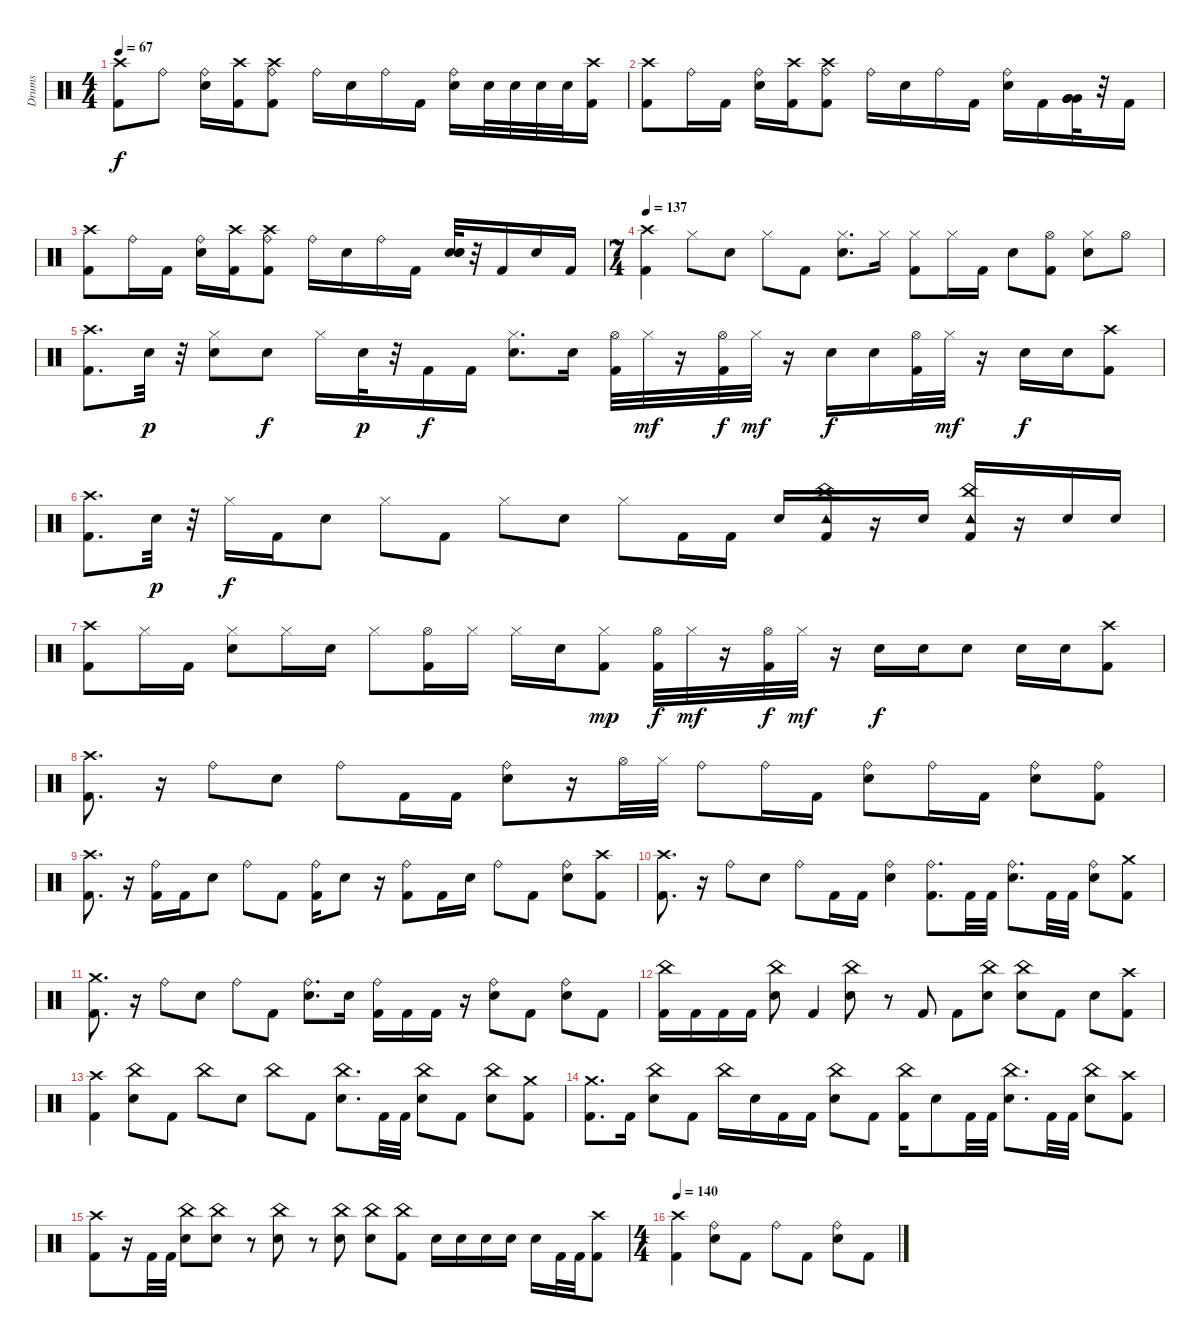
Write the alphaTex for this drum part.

\track ("Drums" "Drums") {instrument percussion}
\staff {score}
\articulation defaults
\ts (4 4)
\tempo 67
\clef neutral
\ks c
("Kick (hit) 2" "Crash high (hit)").8{dy f} "Ride (bell)".8 ("Ride (bell)" "Electric Snare (hit)").16 ("Kick (hit) 2" "Crash high (hit)").16 ("Ride (bell)" "Crash high (hit)" "Kick (hit) 2").8 "Ride (bell)".16 "Electric Snare (hit)".16 "Ride (bell)".16 "Kick (hit) 2".16 ("Ride (bell)" "Electric Snare (hit)").16 "Electric Snare (hit)".32 "Electric Snare (hit)".32 "Electric Snare (hit)".32 "Electric Snare (hit)".32 ("Crash high (hit)" "Kick (hit) 2").16 |
("Crash high (hit)" "Kick (hit) 2").8 "Ride (bell)".16 "Kick (hit) 2".16 ("Ride (bell)" "Electric Snare (hit)").16 ("Kick (hit) 2" "Crash high (hit)").16 ("Ride (bell)" "Crash high (hit)" "Kick (hit) 2").8 "Ride (bell)".16 "Electric Snare (hit)".16 "Ride (bell)".16 "Kick (hit) 2".16 ("Electric Snare (hit)" "Ride (bell)").16 "Kick (hit) 2".16 ("Very Low Tom (hit)" "Very Low Tom (hit)" "Very Low Tom (hit)").32 r.32 "Kick (hit) 2".16 |
("Kick (hit) 2" "Crash high (hit)").8 "Ride (bell)".16 "Kick (hit) 2".16 ("Ride (bell)" "Electric Snare (hit)").16 ("Kick (hit) 2" "Crash high (hit)").16 ("Ride (bell)" "Crash high (hit)" "Kick (hit) 2").8 "Ride (bell)".16 "Electric Snare (hit)".16 "Ride (bell)".16 "Kick (hit) 2".16 ("Electric Snare (hit)" "Electric Snare (hit)" "Electric Snare (hit)").32 r.32 "Kick (hit) 2".16 "Electric Snare (hit)".16 "Kick (hit) 2".16 |
\ts (7 4)
\tempo 137
("Crash high (hit)" "Kick (hit) 2").4 "Hi-Hat (closed)".8 "Electric Snare (hit)".8 "Hi-Hat (closed)".8 "Kick (hit) 2".8 ("Electric Snare (hit)" "Hi-Hat (closed)").8{d} "Hi-Hat (closed)".16 ("Kick (hit) 2" "Hi-Hat (closed)").8 "Hi-Hat (closed)".16 "Kick (hit) 2".16 "Electric Snare (hit)".8 ("Hi-Hat (open)" "Kick (hit) 2").8 ("Hi-Hat (closed)" "Electric Snare (hit)").8 "Hi-Hat (open)".8 |
("Kick (hit) 2" "Crash high (hit)").8{d} "Electric Snare (hit)".32{dy p} r.32 ("Hi-Hat (closed)" "Electric Snare (hit)").8 "Electric Snare (hit)".8{dy f} "Hi-Hat (closed)".16 "Electric Snare (hit)".32{dy p} r.32 "Kick (hit) 2".16{dy f} "Kick (hit) 2".16 ("Electric Snare (hit)" "Hi-Hat (closed)").8{d} "Electric Snare (hit)".16 ("Kick (hit) 2" "Hi-Hat (open)").32 "Hi-Hat (closed)".32{dy mf} r.16 ("Kick (hit) 2" "Hi-Hat (open)").32{dy f} "Hi-Hat (closed)".32{dy mf} r.16 "Electric Snare (hit)".16{dy f} "Electric Snare (hit)".16 ("Hi-Hat (open)" "Kick (hit) 2").32 "Hi-Hat (closed)".32{dy mf} r.16 "Electric Snare (hit)".16{dy f} "Electric Snare (hit)".16 ("Crash high (hit)" "Kick (hit) 2").8 |
("Kick (hit) 2" "Crash high (hit)").8{d} "Electric Snare (hit)".32{dy p} r.32 "Hi-Hat (closed)".16{dy f} "Kick (hit) 2".16 "Electric Snare (hit)".8 "Hi-Hat (closed)".8 "Kick (hit) 2".8 "Hi-Hat (closed)".8 "Electric Snare (hit)".8 "Hi-Hat (closed)".8 "Kick (hit) 2".16 "Kick (hit) 2".16 "Electric Snare (hit)".16 ("Kick (hit) 2" "China (hit)" "Tambourine (hit)").16 r.16 "Electric Snare (hit)".16 ("Kick (hit) 2" "China (hit)" "Tambourine (hit)").16 r.16 "Electric Snare (hit)".16 "Electric Snare (hit)".16 |
("Crash high (hit)" "Kick (hit) 2").8 "Hi-Hat (closed)".16 "Kick (hit) 2".16 ("Hi-Hat (closed)" "Electric Snare (hit)").8 "Hi-Hat (closed)".16 "Electric Snare (hit)".16 "Hi-Hat (closed)".8 ("Kick (hit) 2" "Hi-Hat (open)").16 "Hi-Hat (closed)".16 "Hi-Hat (closed)".16 "Electric Snare (hit)".16 ("Kick (hit) 2" "Hi-Hat (closed)").8{dy mp} ("Kick (hit) 2" "Hi-Hat (open)").32{dy f} "Hi-Hat (closed)".32{dy mf} r.16 ("Kick (hit) 2" "Hi-Hat (open)").32{dy f} "Hi-Hat (closed)".32{dy mf} r.16 "Electric Snare (hit)".16{dy f} "Electric Snare (hit)".16 "Electric Snare (hit)".8 "Electric Snare (hit)".16 "Electric Snare (hit)".16 ("Kick (hit) 2" "Crash high (hit)").8 |
("Crash high (hit)" "Kick (hit) 2").8{d} r.16 "Ride (bell)".8 "Electric Snare (hit)".8 "Ride (bell)".8 "Kick (hit) 2".16 "Kick (hit) 2".16 ("Ride (bell)" "Electric Snare (hit)").8 r.16 "Hi-Hat (open)".32 "Hi-Hat (closed)".32 "Ride (bell)".8 "Ride (bell)".16 "Kick (hit) 2".16 ("Ride (bell)" "Electric Snare (hit)").8 "Ride (bell)".16 "Kick (hit) 2".16 ("Ride (bell)" "Electric Snare (hit)").8 ("Kick (hit) 2" "Ride (bell)").8 |
("Kick (hit) 2" "Crash high (hit)").8{d} r.16 ("Ride (bell)" "Kick (hit) 2").16 "Kick (hit) 2".16 "Electric Snare (hit)".8 "Ride (bell)".8 "Kick (hit) 2".8 ("Kick (hit) 2" "Ride (bell)").16 "Electric Snare (hit)".8 r.16 ("Ride (bell)" "Kick (hit) 2").8 "Kick (hit) 2".16 "Electric Snare (hit)".16 "Ride (bell)".8 "Kick (hit) 2".8 ("Electric Snare (hit)" "Ride (bell)").8 ("Kick (hit) 2" "Crash high (hit)").8 |
("Kick (hit) 2" "Crash high (hit)").8{d} r.16 "Ride (bell)".8 "Electric Snare (hit)".8 "Ride (bell)".8 "Kick (hit) 2".16 "Kick (hit) 2".16 ("Ride (bell)" "Electric Snare (hit)").4 ("Ride (bell)" "Kick (hit) 2").8{d} "Kick (hit) 2".32 "Kick (hit) 2".32 ("Electric Snare (hit)" "Ride (bell)").8{d} "Kick (hit) 2".32 "Kick (hit) 2".32 ("Electric Snare (hit)" "Ride (bell)").8 ("Kick (hit) 2" "Crash medium (hit)").8 |
("Kick (hit) 2" "Crash medium (hit)").8{d} r.16 "Ride (bell)".8 "Electric Snare (hit)".8 "Ride (bell)".8 "Kick (hit) 2".8 ("Ride (bell)" "Electric Snare (hit)").8{d} "Electric Snare (hit)".16 ("Ride (bell)" "Kick (hit) 2").16 "Kick (hit) 2".16 "Kick (hit) 2".16 r.16 ("Ride (bell)" "Electric Snare (hit)").8 "Kick (hit) 2".8 ("Electric Snare (hit)" "Ride (bell)").8 "Kick (hit) 2".8 |
("China (hit)" "Kick (hit) 2").16 "Kick (hit) 2".16 "Kick (hit) 2".16 "Kick (hit) 2".16 ("Electric Snare (hit)" "China (hit)").8 "Kick (hit) 2".4 ("Electric Snare (hit)" "China (hit)").8 r.8 "Kick (hit) 2".8 "Kick (hit) 2".8 ("Electric Snare (hit)" "China (hit)").8 ("Electric Snare (hit)" "China (hit)").8 "Kick (hit) 2".8 "Electric Snare (hit)".8 ("Kick (hit) 2" "Crash high (hit)").8 |
("Crash high (hit)" "Kick (hit) 2").4 ("China (hit)" "Electric Snare (hit)").8 "Kick (hit) 2".8 "China (hit)".8 "Electric Snare (hit)".8 "China (hit)".8 "Kick (hit) 2".8 ("China (hit)" "Electric Snare (hit)").8{d} "Kick (hit) 2".32 "Kick (hit) 2".32 ("China (hit)" "Electric Snare (hit)").8 "Kick (hit) 2".8 ("China (hit)" "Electric Snare (hit)").8 ("Kick (hit) 2" "Crash medium (hit)").8 |
("Crash medium (hit)" "Kick (hit) 2").8{d} "Kick (hit) 2".16 ("China (hit)" "Electric Snare (hit)").8 "Kick (hit) 2".8 "China (hit)".16 "Electric Snare (hit)".16 "Kick (hit) 2".16 "Kick (hit) 2".16 ("China (hit)" "Electric Snare (hit)").8 "Kick (hit) 2".8 ("China (hit)" "Kick (hit) 2").16 "Electric Snare (hit)".8 "Kick (hit) 2".32 "Kick (hit) 2".32 ("China (hit)" "Electric Snare (hit)").8{d} "Kick (hit) 2".32 "Kick (hit) 2".32 ("China (hit)" "Electric Snare (hit)").8 ("Kick (hit) 2" "Crash high (hit)").8 |
("Crash high (hit)" "Kick (hit) 2").8 r.16 "Kick (hit) 2".32 "Kick (hit) 2".32 ("Electric Snare (hit)" "China (hit)").8 ("Electric Snare (hit)" "China (hit)").8 r.8 ("China (hit)" "Electric Snare (hit)").8 r.8 ("China (hit)" "Electric Snare (hit)").8 ("China (hit)" "Electric Snare (hit)").8 ("China (hit)" "Kick (hit) 2").8 "Electric Snare (hit)".16 "Electric Snare (hit)".16 "Electric Snare (hit)".16 "Electric Snare (hit)".16 "Electric Snare (hit)".16 "Kick (hit) 2".32 "Kick (hit) 2".32 ("Kick (hit) 2" "Crash high (hit)").8 |
\ts (4 4)
\tempo 140
("Kick (hit) 2" "Crash high (hit)").4 ("Electric Snare (hit)" "Ride (bell)").8 "Kick (hit) 2".8 "Ride (bell)".8 "Kick (hit) 2".8 ("Electric Snare (hit)" "Ride (bell)").8 "Kick (hit) 2".8
